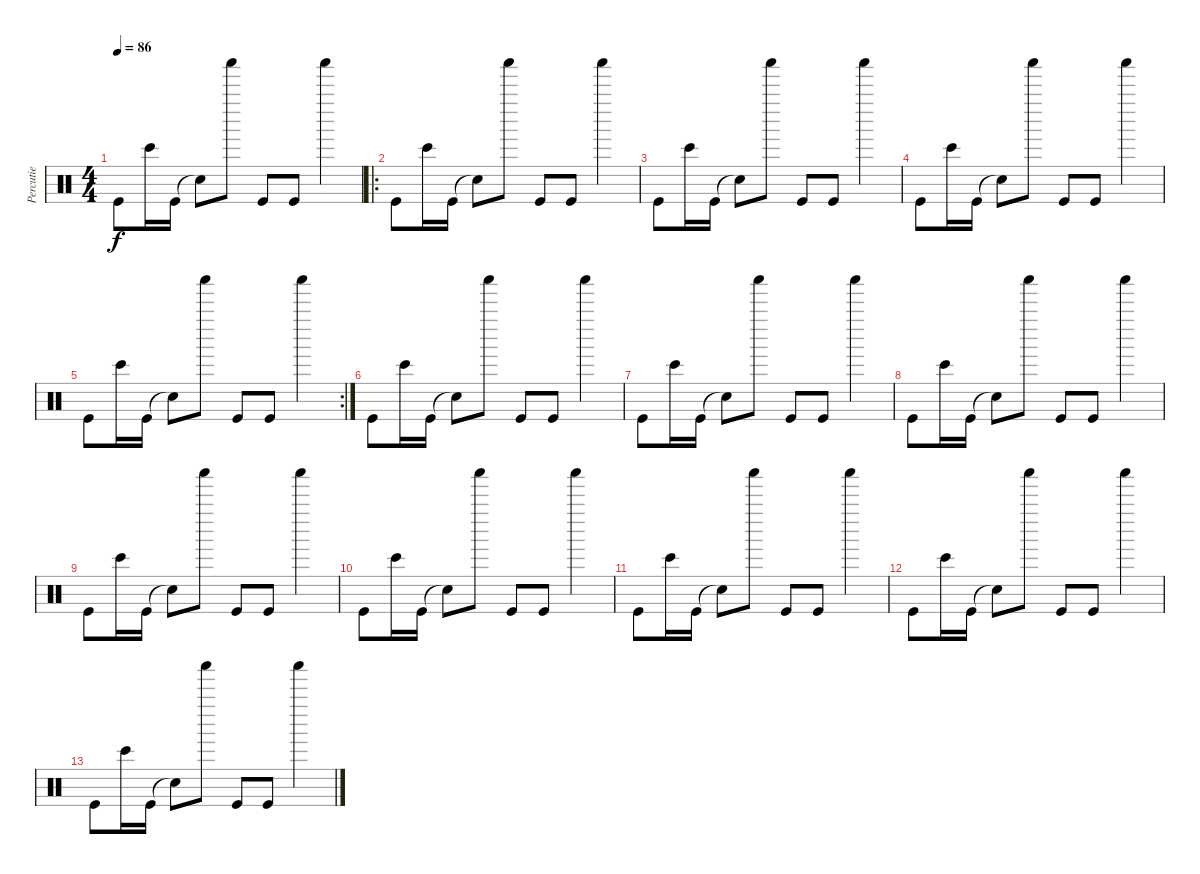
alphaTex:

\track ("Percutie" "Percutie") {instrument percussion}
\staff {score}
\articulation defaults
\ts (4 4)
\tempo 86
\clef neutral
\ks c "Kick (hit)".8{dy f} "Bongo High (hit)".16 "Kick (hit)".16 "Snare (hit)"{t}.8 "Shaker (hit)".8 "Kick (hit)".8 "Kick (hit)".8 "Shaker (hit)".4
|
\ro "Kick (hit)".8 "Bongo High (hit)".16 "Kick (hit)".16 "Snare (hit)"{t}.8 "Shaker (hit)".8 "Kick (hit)".8 "Kick (hit)".8 "Shaker (hit)".4
|
"Kick (hit)".8 "Bongo High (hit)".16 "Kick (hit)".16 "Snare (hit)"{t}.8 "Shaker (hit)".8 "Kick (hit)".8 "Kick (hit)".8 "Shaker (hit)".4 |
"Kick (hit)".8 "Bongo High (hit)".16 "Kick (hit)".16 "Snare (hit)"{t}.8 "Shaker (hit)".8 "Kick (hit)".8 "Kick (hit)".8 "Shaker (hit)".4 |
\rc 2 "Kick (hit)".8 "Bongo High (hit)".16 "Kick (hit)".16 "Snare (hit)"{t}.8 "Shaker (hit)".8 "Kick (hit)".8 "Kick (hit)".8 "Shaker (hit)".4
|
"Kick (hit)".8 "Bongo High (hit)".16 "Kick (hit)".16 "Snare (hit)"{t}.8 "Shaker (hit)".8 "Kick (hit)".8 "Kick (hit)".8 "Shaker (hit)".4 |
"Kick (hit)".8 "Bongo High (hit)".16 "Kick (hit)".16 "Snare (hit)"{t}.8 "Shaker (hit)".8 "Kick (hit)".8 "Kick (hit)".8 "Shaker (hit)".4 |
"Kick (hit)".8 "Bongo High (hit)".16 "Kick (hit)".16 "Snare (hit)"{t}.8 "Shaker (hit)".8 "Kick (hit)".8 "Kick (hit)".8 "Shaker (hit)".4 |
"Kick (hit)".8 "Bongo High (hit)".16 "Kick (hit)".16 "Snare (hit)"{t}.8 "Shaker (hit)".8 "Kick (hit)".8 "Kick (hit)".8 "Shaker (hit)".4 |
"Kick (hit)".8 "Bongo High (hit)".16 "Kick (hit)".16 "Snare (hit)"{t}.8 "Shaker (hit)".8 "Kick (hit)".8 "Kick (hit)".8 "Shaker (hit)".4 |
"Kick (hit)".8 "Bongo High (hit)".16 "Kick (hit)".16 "Snare (hit)"{t}.8 "Shaker (hit)".8 "Kick (hit)".8 "Kick (hit)".8 "Shaker (hit)".4 |
"Kick (hit)".8 "Bongo High (hit)".16 "Kick (hit)".16 "Snare (hit)"{t}.8 "Shaker (hit)".8 "Kick (hit)".8 "Kick (hit)".8 "Shaker (hit)".4 |
"Kick (hit)".8 "Bongo High (hit)".16 "Kick (hit)".16 "Snare (hit)"{t}.8 "Shaker (hit)".8 "Kick (hit)".8 "Kick (hit)".8 "Shaker (hit)".4
